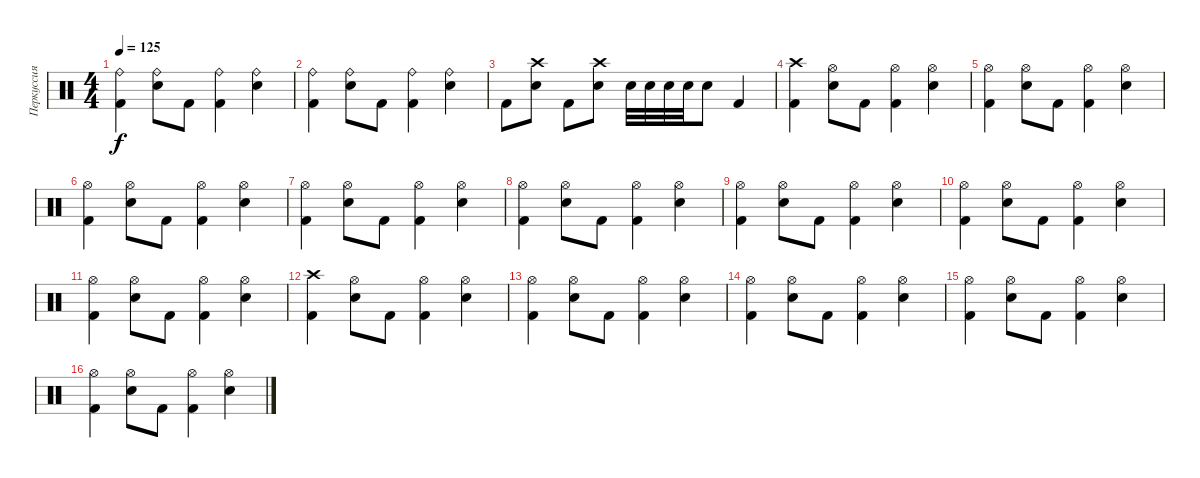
\track ("Перкуссия" "Перкуссия") {instrument percussion}
\staff {score}
\articulation defaults
\ts (4 4)
\tempo 125
\clef neutral
\ks c
("Ride (bell)" "Kick (hit) 2").4{dy f} ("Ride (bell)" "Snare (hit) 2").8 "Kick (hit) 2".8 ("Ride (bell)" "Kick (hit) 2").4 ("Ride (bell)" "Snare (hit) 2").4 |
("Ride (bell)" "Kick (hit) 2").4 ("Ride (bell)" "Snare (hit) 2").8 "Kick (hit) 2".8 ("Ride (bell)" "Kick (hit) 2").4 ("Ride (bell)" "Snare (hit) 2").4 |
"Kick (hit) 2".8 ("Crash high (hit)" "Snare (hit) 2").8 "Kick (hit) 2".8 ("Crash high (hit)" "Snare (hit) 2").8 "Snare (hit) 2".32 "Snare (hit) 2".32 "Snare (hit) 2".32 "Snare (hit) 2".32 "Snare (hit) 2".8 "Kick (hit) 2".4 |
("Crash high (hit)" "Kick (hit) 2").4 ("Hi-Hat (open)" "Snare (hit) 2").8 "Kick (hit) 2".8 ("Hi-Hat (open)" "Kick (hit) 2").4 ("Hi-Hat (open)" "Snare (hit) 2").4 |
("Hi-Hat (open)" "Kick (hit) 2").4 ("Hi-Hat (open)" "Snare (hit) 2").8 "Kick (hit) 2".8 ("Hi-Hat (open)" "Kick (hit) 2").4 ("Hi-Hat (open)" "Snare (hit) 2").4 |
("Hi-Hat (open)" "Kick (hit) 2").4 ("Hi-Hat (open)" "Snare (hit) 2").8 "Kick (hit) 2".8 ("Hi-Hat (open)" "Kick (hit) 2").4 ("Hi-Hat (open)" "Snare (hit) 2").4 |
("Hi-Hat (open)" "Kick (hit) 2").4 ("Hi-Hat (open)" "Snare (hit) 2").8 "Kick (hit) 2".8 ("Hi-Hat (open)" "Kick (hit) 2").4 ("Hi-Hat (open)" "Snare (hit) 2").4 |
("Hi-Hat (open)" "Kick (hit) 2").4 ("Hi-Hat (open)" "Snare (hit) 2").8 "Kick (hit) 2".8 ("Hi-Hat (open)" "Kick (hit) 2").4 ("Hi-Hat (open)" "Snare (hit) 2").4 |
("Hi-Hat (open)" "Kick (hit) 2").4 ("Hi-Hat (open)" "Snare (hit) 2").8 "Kick (hit) 2".8 ("Hi-Hat (open)" "Kick (hit) 2").4 ("Hi-Hat (open)" "Snare (hit) 2").4 |
("Hi-Hat (open)" "Kick (hit) 2").4 ("Hi-Hat (open)" "Snare (hit) 2").8 "Kick (hit) 2".8 ("Hi-Hat (open)" "Kick (hit) 2").4 ("Hi-Hat (open)" "Snare (hit) 2").4 |
("Hi-Hat (open)" "Kick (hit) 2").4 ("Hi-Hat (open)" "Snare (hit) 2").8 "Kick (hit) 2".8 ("Hi-Hat (open)" "Kick (hit) 2").4 ("Hi-Hat (open)" "Snare (hit) 2").4 |
("Crash high (hit)" "Kick (hit) 2").4 ("Hi-Hat (open)" "Snare (hit) 2").8 "Kick (hit) 2".8 ("Hi-Hat (open)" "Kick (hit) 2").4 ("Hi-Hat (open)" "Snare (hit) 2").4 |
("Hi-Hat (open)" "Kick (hit) 2").4 ("Hi-Hat (open)" "Snare (hit) 2").8 "Kick (hit) 2".8 ("Hi-Hat (open)" "Kick (hit) 2").4 ("Hi-Hat (open)" "Snare (hit) 2").4 |
("Hi-Hat (open)" "Kick (hit) 2").4 ("Hi-Hat (open)" "Snare (hit) 2").8 "Kick (hit) 2".8 ("Hi-Hat (open)" "Kick (hit) 2").4 ("Hi-Hat (open)" "Snare (hit) 2").4 |
("Hi-Hat (open)" "Kick (hit) 2").4 ("Hi-Hat (open)" "Snare (hit) 2").8 "Kick (hit) 2".8 ("Hi-Hat (open)" "Kick (hit) 2").4 ("Hi-Hat (open)" "Snare (hit) 2").4 |
("Hi-Hat (open)" "Kick (hit) 2").4 ("Hi-Hat (open)" "Snare (hit) 2").8 "Kick (hit) 2".8 ("Hi-Hat (open)" "Kick (hit) 2").4 ("Hi-Hat (open)" "Snare (hit) 2").4
